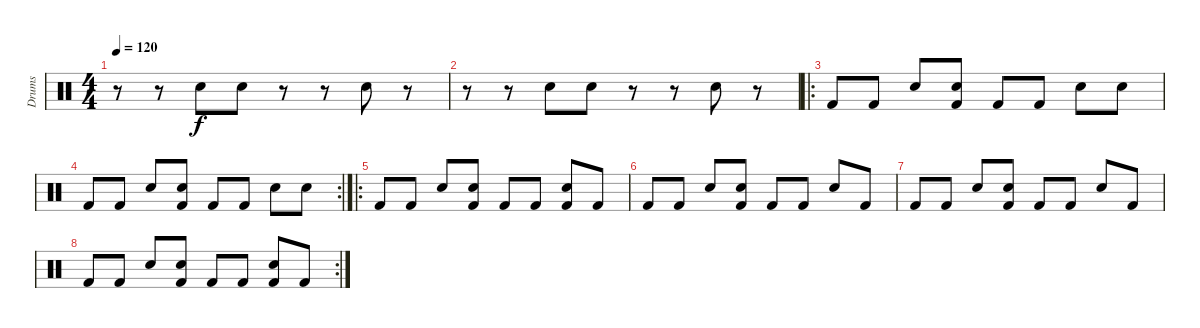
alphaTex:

\track ("Drums" "Drums") {instrument percussion}
\staff {score}
\articulation defaults
\ts (4 4)
\tempo 120
\clef neutral
\ks c
r.8{dy f} r.8 "Snare (hit) 2".8 "Snare (hit) 2".8 r.8 r.8 "Snare (hit) 2".8 r.8 |
r.8 r.8 "Snare (hit) 2".8 "Snare (hit) 2".8 r.8 r.8 "Snare (hit) 2".8 r.8 |
\ro "Kick (hit) 2".8 "Kick (hit) 2".8 "Snare (hit) 2".8
("Snare (hit) 2" "Kick (hit) 2").8 "Kick (hit) 2".8 "Kick (hit) 2".8 "Snare (hit) 2".8 "Snare (hit) 2".8 |
\rc 2 "Kick (hit) 2".8 "Kick (hit) 2".8 "Snare (hit) 2".8
("Snare (hit) 2" "Kick (hit) 2").8 "Kick (hit) 2".8 "Kick (hit) 2".8 "Snare (hit) 2".8 "Snare (hit) 2".8 |
\ro "Kick (hit) 2".8 "Kick (hit) 2".8 "Snare (hit) 2".8
("Snare (hit) 2" "Kick (hit) 2").8 "Kick (hit) 2".8 "Kick (hit) 2".8 ("Snare (hit) 2" "Kick (hit) 2").8 "Kick (hit) 2".8 |
"Kick (hit) 2".8 "Kick (hit) 2".8 "Snare (hit) 2".8 ("Snare (hit) 2" "Kick (hit) 2").8 "Kick (hit) 2".8 "Kick (hit) 2".8 "Snare (hit) 2".8 "Kick (hit) 2".8 |
"Kick (hit) 2".8 "Kick (hit) 2".8 "Snare (hit) 2".8 ("Snare (hit) 2" "Kick (hit) 2").8 "Kick (hit) 2".8 "Kick (hit) 2".8 "Snare (hit) 2".8 "Kick (hit) 2".8 |
\rc 2 "Kick (hit) 2".8 "Kick (hit) 2".8 "Snare (hit) 2".8
("Snare (hit) 2" "Kick (hit) 2").8 "Kick (hit) 2".8 "Kick (hit) 2".8 ("Snare (hit) 2" "Kick (hit) 2").8 "Kick (hit) 2".8
